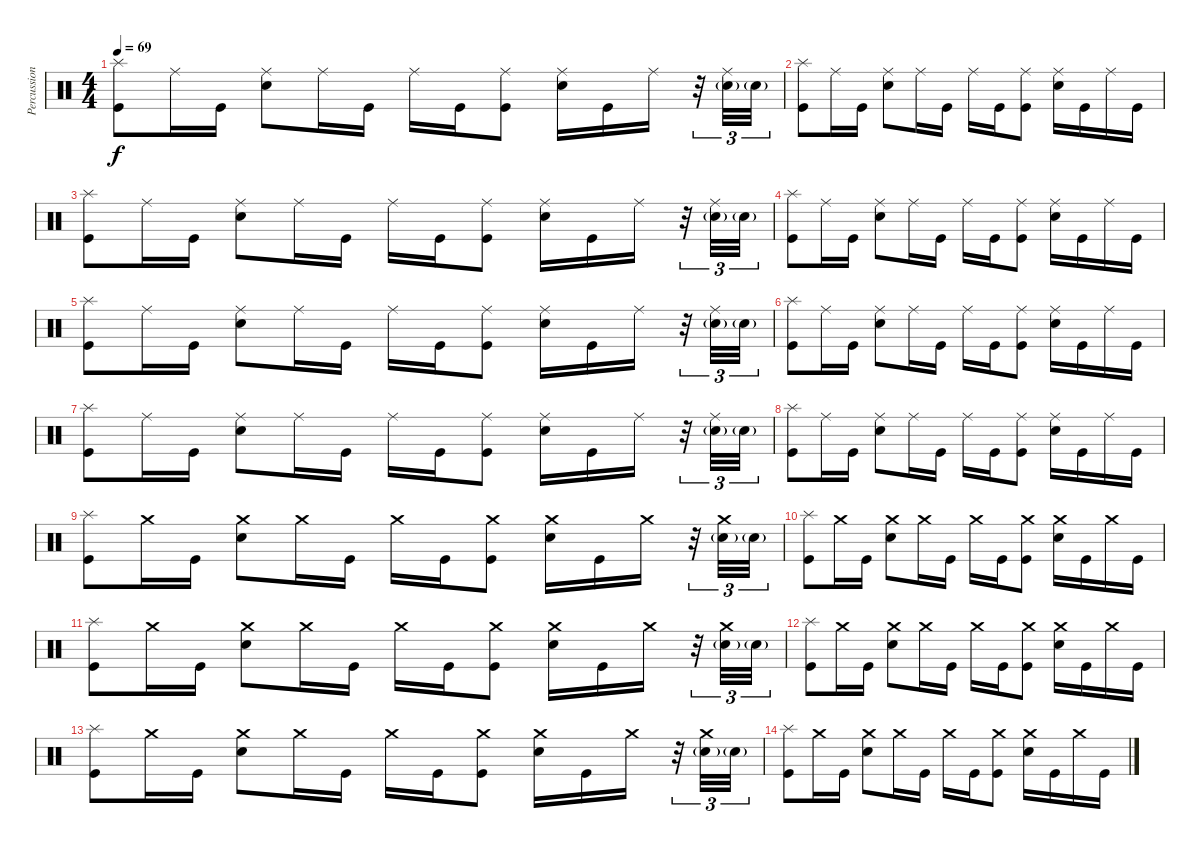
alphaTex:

\track ("Percussion" "Percussion") {instrument percussion}
\staff {score}
\articulation defaults
\ts (4 4)
\tempo 69
\clef neutral
\ks c
("Splash (hit)" "Kick (hit)").8{dy f} "Ride (middle)".16 "Kick (hit)".16 ("Electric Snare (hit)" "Ride (middle)").8 "Ride (middle)".16 "Kick (hit)".16 "Ride (middle)".16 "Kick (hit)".16 ("Kick (hit)" "Ride (middle)").8 ("Electric Snare (hit)" "Ride (middle)").16 "Kick (hit)".16 "Ride (middle)".16 r.32{tu (3 2)} ("Electric Snare (hit)"{g} "Ride (middle)").32{tu (3 2)} "Electric Snare (hit)"{g}.32{tu (3 2)} |
("Splash (hit)" "Kick (hit)").8 "Ride (middle)".16 "Kick (hit)".16 ("Electric Snare (hit)" "Ride (middle)").8 "Ride (middle)".16 "Kick (hit)".16 "Ride (middle)".16 "Kick (hit)".16 ("Kick (hit)" "Ride (middle)").8 ("Electric Snare (hit)" "Ride (middle)").16 "Kick (hit)".16 "Ride (middle)".16 "Kick (hit)".16 |
("Splash (hit)" "Kick (hit)").8 "Ride (middle)".16 "Kick (hit)".16 ("Electric Snare (hit)" "Ride (middle)").8 "Ride (middle)".16 "Kick (hit)".16 "Ride (middle)".16 "Kick (hit)".16 ("Kick (hit)" "Ride (middle)").8 ("Electric Snare (hit)" "Ride (middle)").16 "Kick (hit)".16 "Ride (middle)".16 r.32{tu (3 2)} ("Electric Snare (hit)"{g} "Ride (middle)").32{tu (3 2)} "Electric Snare (hit)"{g}.32{tu (3 2)} |
("Splash (hit)" "Kick (hit)").8 "Ride (middle)".16 "Kick (hit)".16 ("Electric Snare (hit)" "Ride (middle)").8 "Ride (middle)".16 "Kick (hit)".16 "Ride (middle)".16 "Kick (hit)".16 ("Kick (hit)" "Ride (middle)").8 ("Electric Snare (hit)" "Ride (middle)").16 "Kick (hit)".16 "Ride (middle)".16 "Kick (hit)".16 |
("Splash (hit)" "Kick (hit)").8 "Ride (middle)".16 "Kick (hit)".16 ("Electric Snare (hit)" "Ride (middle)").8 "Ride (middle)".16 "Kick (hit)".16 "Ride (middle)".16 "Kick (hit)".16 ("Kick (hit)" "Ride (middle)").8 ("Electric Snare (hit)" "Ride (middle)").16 "Kick (hit)".16 "Ride (middle)".16 r.32{tu (3 2)} ("Electric Snare (hit)"{g} "Ride (middle)").32{tu (3 2)} "Electric Snare (hit)"{g}.32{tu (3 2)} |
("Splash (hit)" "Kick (hit)").8 "Ride (middle)".16 "Kick (hit)".16 ("Electric Snare (hit)" "Ride (middle)").8 "Ride (middle)".16 "Kick (hit)".16 "Ride (middle)".16 "Kick (hit)".16 ("Kick (hit)" "Ride (middle)").8 ("Electric Snare (hit)" "Ride (middle)").16 "Kick (hit)".16 "Ride (middle)".16 "Kick (hit)".16 |
("Splash (hit)" "Kick (hit)").8 "Ride (middle)".16 "Kick (hit)".16 ("Electric Snare (hit)" "Ride (middle)").8 "Ride (middle)".16 "Kick (hit)".16 "Ride (middle)".16 "Kick (hit)".16 ("Kick (hit)" "Ride (middle)").8 ("Electric Snare (hit)" "Ride (middle)").16 "Kick (hit)".16 "Ride (middle)".16 r.32{tu (3 2)} ("Electric Snare (hit)"{g} "Ride (middle)").32{tu (3 2)} "Electric Snare (hit)"{g}.32{tu (3 2)} |
("Splash (hit)" "Kick (hit)").8 "Ride (middle)".16 "Kick (hit)".16 ("Electric Snare (hit)" "Ride (middle)").8 "Ride (middle)".16 "Kick (hit)".16 "Ride (middle)".16 "Kick (hit)".16 ("Kick (hit)" "Ride (middle)").8 ("Electric Snare (hit)" "Ride (middle)").16 "Kick (hit)".16 "Ride (middle)".16 "Kick (hit)".16 |
("Splash (hit)" "Kick (hit)").8 "Crash medium (hit)".16 "Kick (hit)".16 ("Electric Snare (hit)" "Crash medium (hit)").8 "Crash medium (hit)".16 "Kick (hit)".16 "Crash medium (hit)".16 "Kick (hit)".16 ("Kick (hit)" "Crash medium (hit)").8 ("Electric Snare (hit)" "Crash medium (hit)").16 "Kick (hit)".16 "Crash medium (hit)".16 r.32{tu (3 2)} ("Electric Snare (hit)"{g} "Crash medium (hit)").32{tu (3 2)} "Electric Snare (hit)"{g}.32{tu (3 2)} |
("Splash (hit)" "Kick (hit)").8 "Crash medium (hit)".16 "Kick (hit)".16 ("Electric Snare (hit)" "Crash medium (hit)").8 "Crash medium (hit)".16 "Kick (hit)".16 "Crash medium (hit)".16 "Kick (hit)".16 ("Kick (hit)" "Crash medium (hit)").8 ("Electric Snare (hit)" "Crash medium (hit)").16 "Kick (hit)".16 "Crash medium (hit)".16 "Kick (hit)".16 |
("Splash (hit)" "Kick (hit)").8 "Crash medium (hit)".16 "Kick (hit)".16 ("Electric Snare (hit)" "Crash medium (hit)").8 "Crash medium (hit)".16 "Kick (hit)".16 "Crash medium (hit)".16 "Kick (hit)".16 ("Kick (hit)" "Crash medium (hit)").8 ("Electric Snare (hit)" "Crash medium (hit)").16 "Kick (hit)".16 "Crash medium (hit)".16 r.32{tu (3 2)} ("Electric Snare (hit)"{g} "Crash medium (hit)").32{tu (3 2)} "Electric Snare (hit)"{g}.32{tu (3 2)} |
("Splash (hit)" "Kick (hit)").8 "Crash medium (hit)".16 "Kick (hit)".16 ("Electric Snare (hit)" "Crash medium (hit)").8 "Crash medium (hit)".16 "Kick (hit)".16 "Crash medium (hit)".16 "Kick (hit)".16 ("Kick (hit)" "Crash medium (hit)").8 ("Electric Snare (hit)" "Crash medium (hit)").16 "Kick (hit)".16 "Crash medium (hit)".16 "Kick (hit)".16 |
("Splash (hit)" "Kick (hit)").8 "Crash medium (hit)".16 "Kick (hit)".16 ("Electric Snare (hit)" "Crash medium (hit)").8 "Crash medium (hit)".16 "Kick (hit)".16 "Crash medium (hit)".16 "Kick (hit)".16 ("Kick (hit)" "Crash medium (hit)").8 ("Electric Snare (hit)" "Crash medium (hit)").16 "Kick (hit)".16 "Crash medium (hit)".16 r.32{tu (3 2)} ("Electric Snare (hit)"{g} "Crash medium (hit)").32{tu (3 2)} "Electric Snare (hit)"{g}.32{tu (3 2)} |
("Splash (hit)" "Kick (hit)").8 "Crash medium (hit)".16 "Kick (hit)".16 ("Electric Snare (hit)" "Crash medium (hit)").8 "Crash medium (hit)".16 "Kick (hit)".16 "Crash medium (hit)".16 "Kick (hit)".16 ("Kick (hit)" "Crash medium (hit)").8 ("Electric Snare (hit)" "Crash medium (hit)").16 "Kick (hit)".16 "Crash medium (hit)".16 "Kick (hit)".16
